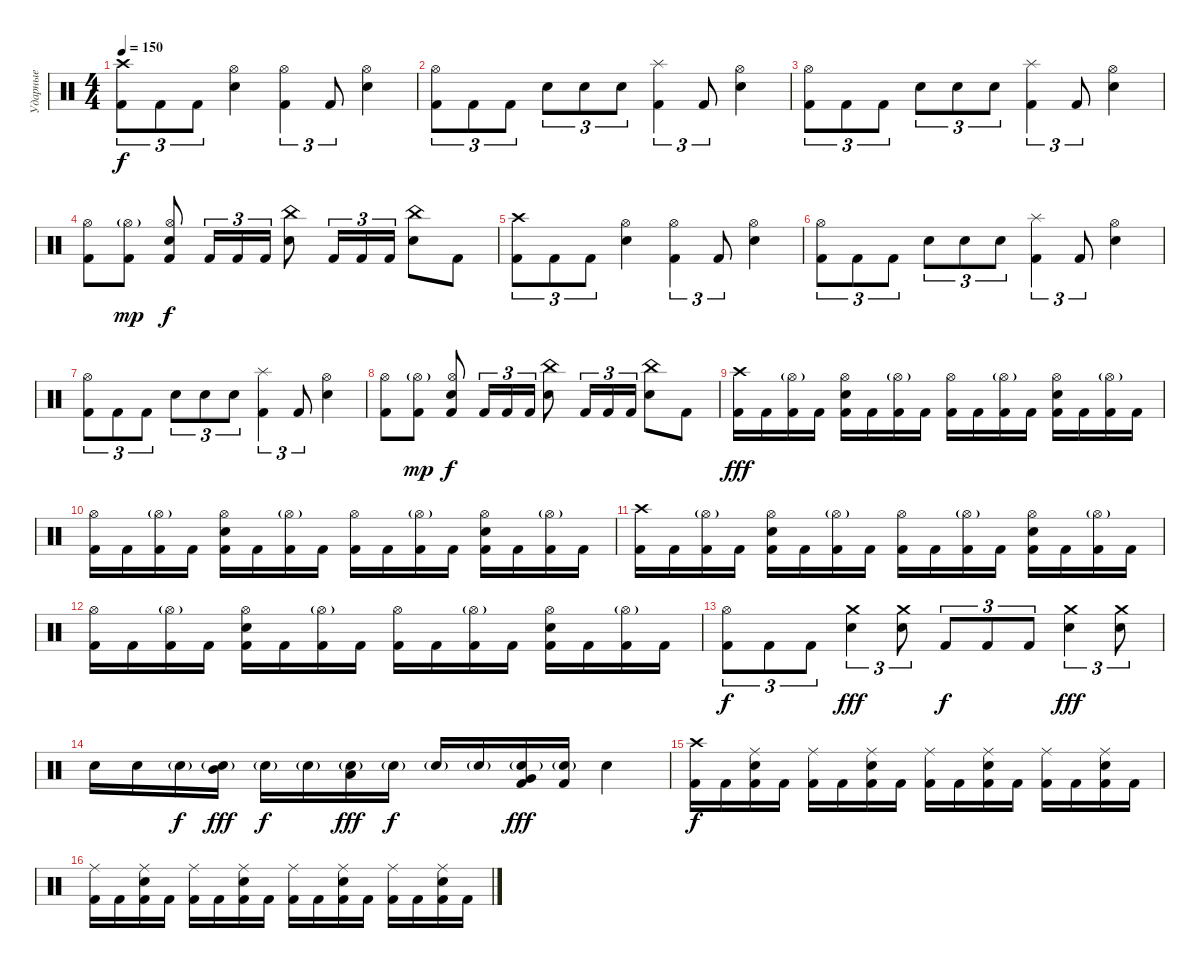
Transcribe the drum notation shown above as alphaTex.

\track ("Ударные" "Ударные") {instrument percussion}
\staff {score}
\articulation defaults
\ts (4 4)
\tempo 150
\clef neutral
\ks c
("Crash high (hit)" "Kick (hit) 2").8{tu (3 2) dy f} "Kick (hit) 2".8{tu (3 2)} "Kick (hit) 2".8{tu (3 2)} ("Hi-Hat (open)" "Electric Snare (hit)").4 ("Hi-Hat (open)" "Kick (hit) 2").4{tu (3 2)} "Kick (hit) 2".8{tu (3 2)} ("Hi-Hat (open)" "Electric Snare (hit)").4 |
("Hi-Hat (open)" "Kick (hit) 2").8{tu (3 2)} "Kick (hit) 2".8{tu (3 2)} "Kick (hit) 2".8{tu (3 2)} "Electric Snare (hit)".8{tu (3 2)} "Electric Snare (hit)".8{tu (3 2)} "Electric Snare (hit)".8{tu (3 2)} ("Splash (hit)" "Kick (hit) 2").4{tu (3 2)} "Kick (hit) 2".8{tu (3 2)} ("Hi-Hat (open)" "Electric Snare (hit)").4 |
("Hi-Hat (open)" "Kick (hit) 2").8{tu (3 2)} "Kick (hit) 2".8{tu (3 2)} "Kick (hit) 2".8{tu (3 2)} "Electric Snare (hit)".8{tu (3 2)} "Electric Snare (hit)".8{tu (3 2)} "Electric Snare (hit)".8{tu (3 2)} ("Splash (hit)" "Kick (hit) 2").4{tu (3 2)} "Kick (hit) 2".8{tu (3 2)} ("Hi-Hat (open)" "Electric Snare (hit)").4 |
("Hi-Hat (open)" "Kick (hit) 2").8 ("Hi-Hat (open)"{g} "Kick (hit) 2").8{dy mp} ("Hi-Hat (open)" "Electric Snare (hit)" "Kick (hit) 2").8{dy f} "Kick (hit) 2".16{tu (3 2)} "Kick (hit) 2".16{tu (3 2)} "Kick (hit) 2".16{tu (3 2)} ("China (hit)" "Electric Snare (hit)").8 "Kick (hit) 2".16{tu (3 2)} "Kick (hit) 2".16{tu (3 2)} "Kick (hit) 2".16{tu (3 2)} ("China (hit)" "Electric Snare (hit)").8 "Kick (hit) 2".8 |
("Crash high (hit)" "Kick (hit) 2").8{tu (3 2)} "Kick (hit) 2".8{tu (3 2)} "Kick (hit) 2".8{tu (3 2)} ("Hi-Hat (open)" "Electric Snare (hit)").4 ("Hi-Hat (open)" "Kick (hit) 2").4{tu (3 2)} "Kick (hit) 2".8{tu (3 2)} ("Hi-Hat (open)" "Electric Snare (hit)").4 |
("Hi-Hat (open)" "Kick (hit) 2").8{tu (3 2)} "Kick (hit) 2".8{tu (3 2)} "Kick (hit) 2".8{tu (3 2)} "Electric Snare (hit)".8{tu (3 2)} "Electric Snare (hit)".8{tu (3 2)} "Electric Snare (hit)".8{tu (3 2)} ("Splash (hit)" "Kick (hit) 2").4{tu (3 2)} "Kick (hit) 2".8{tu (3 2)} ("Hi-Hat (open)" "Electric Snare (hit)").4 |
("Hi-Hat (open)" "Kick (hit) 2").8{tu (3 2)} "Kick (hit) 2".8{tu (3 2)} "Kick (hit) 2".8{tu (3 2)} "Electric Snare (hit)".8{tu (3 2)} "Electric Snare (hit)".8{tu (3 2)} "Electric Snare (hit)".8{tu (3 2)} ("Splash (hit)" "Kick (hit) 2").4{tu (3 2)} "Kick (hit) 2".8{tu (3 2)} ("Hi-Hat (open)" "Electric Snare (hit)").4 |
("Hi-Hat (open)" "Kick (hit) 2").8 ("Hi-Hat (open)"{g} "Kick (hit) 2").8{dy mp} ("Hi-Hat (open)" "Electric Snare (hit)" "Kick (hit) 2").8{dy f} "Kick (hit) 2".16{tu (3 2)} "Kick (hit) 2".16{tu (3 2)} "Kick (hit) 2".16{tu (3 2)} ("China (hit)" "Electric Snare (hit)").8 "Kick (hit) 2".16{tu (3 2)} "Kick (hit) 2".16{tu (3 2)} "Kick (hit) 2".16{tu (3 2)} ("China (hit)" "Electric Snare (hit)").8 "Kick (hit) 2".8 |
("Crash high (hit)" "Kick (hit) 2").16{dy fff} "Kick (hit) 2".16 ("Hi-Hat (open)"{g} "Kick (hit) 2").16 "Kick (hit) 2".16 ("Hi-Hat (open)" "Electric Snare (hit)" "Kick (hit) 2").16 "Kick (hit) 2".16 ("Hi-Hat (open)"{g} "Kick (hit) 2").16 "Kick (hit) 2".16 ("Hi-Hat (open)" "Kick (hit) 2").16 "Kick (hit) 2".16 ("Hi-Hat (open)"{g} "Kick (hit) 2").16 "Kick (hit) 2".16 ("Hi-Hat (open)" "Electric Snare (hit)" "Kick (hit) 2").16 "Kick (hit) 2".16 ("Hi-Hat (open)"{g} "Kick (hit) 2").16 "Kick (hit) 2".16 |
("Hi-Hat (open)" "Kick (hit) 2").16 "Kick (hit) 2".16 ("Hi-Hat (open)"{g} "Kick (hit) 2").16 "Kick (hit) 2".16 ("Hi-Hat (open)" "Electric Snare (hit)" "Kick (hit) 2").16 "Kick (hit) 2".16 ("Hi-Hat (open)"{g} "Kick (hit) 2").16 "Kick (hit) 2".16 ("Hi-Hat (open)" "Kick (hit) 2").16 "Kick (hit) 2".16 ("Hi-Hat (open)"{g} "Kick (hit) 2").16 "Kick (hit) 2".16 ("Hi-Hat (open)" "Electric Snare (hit)" "Kick (hit) 2").16 "Kick (hit) 2".16 ("Hi-Hat (open)"{g} "Kick (hit) 2").16 "Kick (hit) 2".16 |
("Crash high (hit)" "Kick (hit) 2").16 "Kick (hit) 2".16 ("Hi-Hat (open)"{g} "Kick (hit) 2").16 "Kick (hit) 2".16 ("Hi-Hat (open)" "Electric Snare (hit)" "Kick (hit) 2").16 "Kick (hit) 2".16 ("Hi-Hat (open)"{g} "Kick (hit) 2").16 "Kick (hit) 2".16 ("Hi-Hat (open)" "Kick (hit) 2").16 "Kick (hit) 2".16 ("Hi-Hat (open)"{g} "Kick (hit) 2").16 "Kick (hit) 2".16 ("Hi-Hat (open)" "Electric Snare (hit)" "Kick (hit) 2").16 "Kick (hit) 2".16 ("Hi-Hat (open)"{g} "Kick (hit) 2").16 "Kick (hit) 2".16 |
("Hi-Hat (open)" "Kick (hit) 2").16 "Kick (hit) 2".16 ("Hi-Hat (open)"{g} "Kick (hit) 2").16 "Kick (hit) 2".16 ("Hi-Hat (open)" "Electric Snare (hit)" "Kick (hit) 2").16 "Kick (hit) 2".16 ("Hi-Hat (open)"{g} "Kick (hit) 2").16 "Kick (hit) 2".16 ("Hi-Hat (open)" "Kick (hit) 2").16 "Kick (hit) 2".16 ("Hi-Hat (open)"{g} "Kick (hit) 2").16 "Kick (hit) 2".16 ("Hi-Hat (open)" "Electric Snare (hit)" "Kick (hit) 2").16 "Kick (hit) 2".16 ("Hi-Hat (open)"{g} "Kick (hit) 2").16 "Kick (hit) 2".16 |
("Hi-Hat (open)" "Kick (hit) 2").8{tu (3 2) dy f} "Kick (hit) 2".8{tu (3 2)} "Kick (hit) 2".8{tu (3 2)} ("Crash medium (hit)" "Electric Snare (hit)").4{tu (3 2) dy fff} ("Crash medium (hit)" "Electric Snare (hit)").8{tu (3 2)} "Kick (hit) 2".8{tu (3 2) dy f} "Kick (hit) 2".8{tu (3 2)} "Kick (hit) 2".8{tu (3 2)} ("Crash medium (hit)" "Electric Snare (hit)").4{tu (3 2) dy fff} ("Crash medium (hit)" "Electric Snare (hit)").8{tu (3 2)} |
"Electric Snare (hit)".16 "Electric Snare (hit)".16 "Electric Snare (hit)"{g}.16{dy f} ("Mid Tom (hit)" "Electric Snare (hit)"{g}).16{dy fff} "Electric Snare (hit)"{g}.16{dy f} "Electric Snare (hit)"{g}.16 ("Low Tom (hit)" "Electric Snare (hit)"{g}).16{dy fff} "Electric Snare (hit)"{g}.16{dy f} "Electric Snare (hit)"{g}.16 "Electric Snare (hit)"{g}.16 ("Electric Snare (hit)"{g} "Very Low Tom (hit)" "Kick (hit) 2").16{dy fff} ("Electric Snare (hit)"{g} "Kick (hit) 2").16 "Electric Snare (hit)".4 |
("Crash high (hit)" "Kick (hit) 2").16{dy f} "Kick (hit) 2".16 ("Ride (middle)" "Electric Snare (hit)" "Kick (hit) 2").16 "Kick (hit) 2".16 ("Ride (middle)" "Kick (hit) 2").16 "Kick (hit) 2".16 ("Ride (middle)" "Electric Snare (hit)" "Kick (hit) 2").16 "Kick (hit) 2".16 ("Ride (middle)" "Kick (hit) 2").16 "Kick (hit) 2".16 ("Ride (middle)" "Electric Snare (hit)" "Kick (hit) 2").16 "Kick (hit) 2".16 ("Ride (middle)" "Kick (hit) 2").16 "Kick (hit) 2".16 ("Ride (middle)" "Electric Snare (hit)" "Kick (hit) 2").16 "Kick (hit) 2".16 |
("Ride (middle)" "Kick (hit) 2").16 "Kick (hit) 2".16 ("Ride (middle)" "Electric Snare (hit)" "Kick (hit) 2").16 "Kick (hit) 2".16 ("Ride (middle)" "Kick (hit) 2").16 "Kick (hit) 2".16 ("Ride (middle)" "Electric Snare (hit)" "Kick (hit) 2").16 "Kick (hit) 2".16 ("Ride (middle)" "Kick (hit) 2").16 "Kick (hit) 2".16 ("Ride (middle)" "Electric Snare (hit)" "Kick (hit) 2").16 "Kick (hit) 2".16 ("Ride (middle)" "Kick (hit) 2").16 "Kick (hit) 2".16 ("Ride (middle)" "Electric Snare (hit)" "Kick (hit) 2").16 "Kick (hit) 2".16
